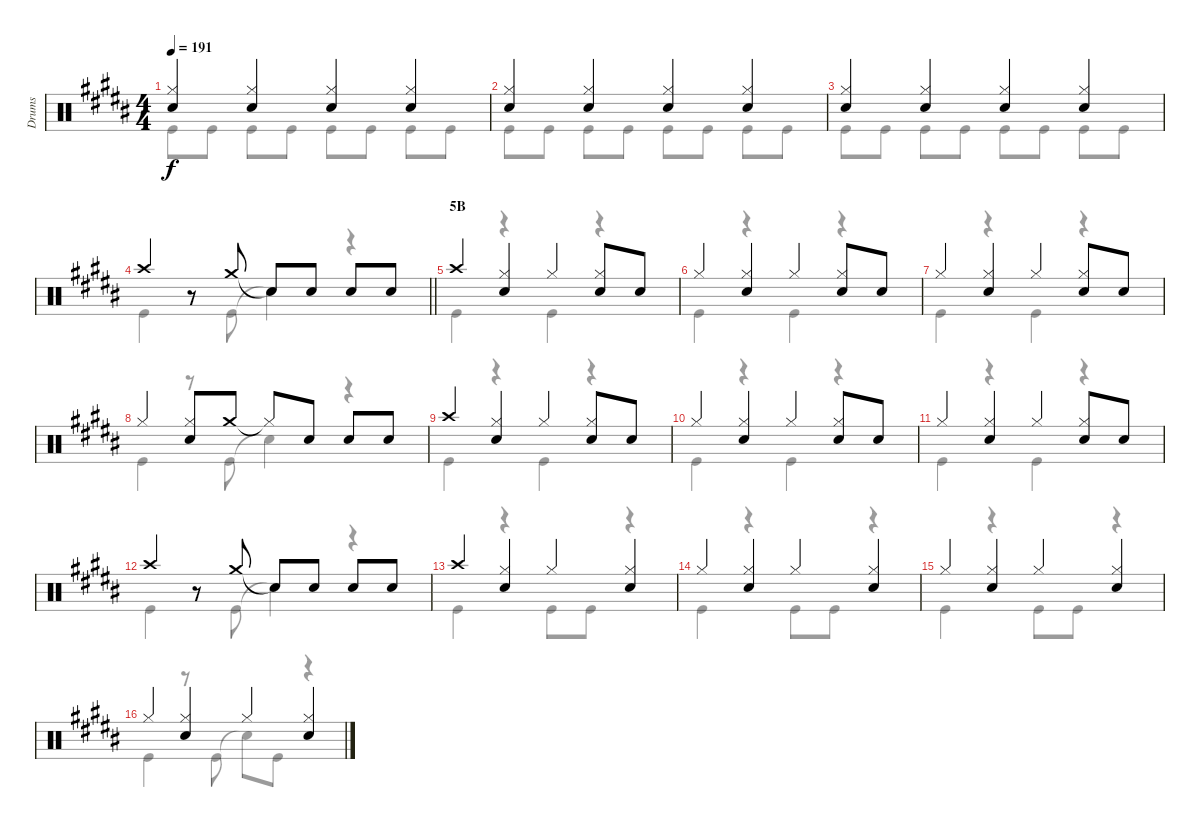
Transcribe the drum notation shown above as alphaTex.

\track ("Drums" "Drums") {instrument percussion}
\staff {score}
\articulation defaults
\voice
\ts (4 4)
\tempo 191
\clef neutral
\ks b
("Hi-Hat (closed)" "Snare (hit) 2").4{dy f} ("Hi-Hat (closed)" "Snare (hit) 2").4 ("Hi-Hat (closed)" "Snare (hit) 2").4 ("Hi-Hat (closed)" "Snare (hit) 2").4 |
("Hi-Hat (closed)" "Snare (hit) 2").4 ("Hi-Hat (closed)" "Snare (hit) 2").4 ("Hi-Hat (closed)" "Snare (hit) 2").4 ("Hi-Hat (closed)" "Snare (hit) 2").4 |
("Hi-Hat (closed)" "Snare (hit) 2").4 ("Hi-Hat (closed)" "Snare (hit) 2").4 ("Hi-Hat (closed)" "Snare (hit) 2").4 ("Hi-Hat (closed)" "Snare (hit) 2").4 |
\barLineRight lightlight "Crash high (hit)".4
r.8 "Crash medium (hit)".8 "Snare (hit)"{t}.8 "Snare (hit) 2".8 "Snare (hit) 2".8 "Snare (hit) 2".8 |
\section ("" "5B")
"Crash high (hit)".4 ("Hi-Hat (closed)" "Snare (hit) 2").4 "Hi-Hat (closed)".4 ("Hi-Hat (closed)" "Snare (hit) 2").8 "Snare (hit) 2".8 |
"Hi-Hat (closed)".4 ("Hi-Hat (closed)" "Snare (hit) 2").4 "Hi-Hat (closed)".4 ("Hi-Hat (closed)" "Snare (hit) 2").8 "Snare (hit) 2".8 |
"Hi-Hat (closed)".4 ("Hi-Hat (closed)" "Snare (hit) 2").4 "Hi-Hat (closed)".4 ("Hi-Hat (closed)" "Snare (hit) 2").8 "Snare (hit) 2".8 |
"Hi-Hat (closed)".4 ("Hi-Hat (closed)" "Snare (hit) 2").8 "Crash medium (hit)".8 "Hi-Hat (closed)"{t}.8 "Snare (hit) 2".8 "Snare (hit) 2".8 "Snare (hit) 2".8 |
"Crash high (hit)".4 ("Hi-Hat (closed)" "Snare (hit) 2").4 "Hi-Hat (closed)".4 ("Hi-Hat (closed)" "Snare (hit) 2").8 "Snare (hit) 2".8 |
"Hi-Hat (closed)".4 ("Hi-Hat (closed)" "Snare (hit) 2").4 "Hi-Hat (closed)".4 ("Hi-Hat (closed)" "Snare (hit) 2").8 "Snare (hit) 2".8 |
"Hi-Hat (closed)".4 ("Hi-Hat (closed)" "Snare (hit) 2").4 "Hi-Hat (closed)".4 ("Hi-Hat (closed)" "Snare (hit) 2").8 "Snare (hit) 2".8 |
"Crash high (hit)".4 r.8 "Crash medium (hit)".8 "Snare (hit)"{t}.8 "Snare (hit) 2".8 "Snare (hit) 2".8 "Snare (hit) 2".8 |
"Crash high (hit)".4 ("Hi-Hat (closed)" "Snare (hit) 2").4 "Hi-Hat (closed)".4 ("Hi-Hat (closed)" "Snare (hit) 2").4 |
"Hi-Hat (closed)".4 ("Hi-Hat (closed)" "Snare (hit) 2").4 "Hi-Hat (closed)".4 ("Hi-Hat (closed)" "Snare (hit) 2").4 |
"Hi-Hat (closed)".4 ("Hi-Hat (closed)" "Snare (hit) 2").4 "Hi-Hat (closed)".4 ("Hi-Hat (closed)" "Snare (hit) 2").4 |
"Hi-Hat (closed)".4 ("Hi-Hat (closed)" "Snare (hit) 2").4 "Hi-Hat (closed)".4 ("Hi-Hat (closed)" "Snare (hit) 2").4
\voice
\clef neutral
\ottava regular
\simile none
\ks b "Kick (hit)".8{dy f} "Kick (hit)".8 "Kick (hit)".8 "Kick (hit)".8 "Kick (hit)".8 "Kick (hit)".8 "Kick (hit)".8 "Kick (hit)".8
|
"Kick (hit)".8 "Kick (hit)".8 "Kick (hit)".8 "Kick (hit)".8 "Kick (hit)".8 "Kick (hit)".8 "Kick (hit)".8 "Kick (hit)".8 |
"Kick (hit)".8 "Kick (hit)".8 "Kick (hit)".8 "Kick (hit)".8 "Kick (hit)".8 "Kick (hit)".8 "Kick (hit)".8 "Kick (hit)".8 |
\barLineRight lightlight "Kick (hit)".4
r.8 "Kick (hit)".8 "Snare (hit)"{t}.4 r.4 |
"Kick (hit)".4 r.4 "Kick (hit)".4 r.4 |
"Kick (hit)".4 r.4 "Kick (hit)".4 r.4 |
"Kick (hit)".4 r.4 "Kick (hit)".4 r.4 |
"Kick (hit)".4 r.8 "Kick (hit)".8 "Snare (hit)"{t}.4 r.4 |
"Kick (hit)".4 r.4 "Kick (hit)".4 r.4 |
"Kick (hit)".4 r.4 "Kick (hit)".4 r.4 |
"Kick (hit)".4 r.4 "Kick (hit)".4 r.4 |
"Kick (hit)".4 r.8 "Kick (hit)".8 "Snare (hit)"{t}.4 r.4 |
"Kick (hit)".4 r.4 "Kick (hit)".8 "Kick (hit)".8 r.4 |
"Kick (hit)".4 r.4 "Kick (hit)".8 "Kick (hit)".8 r.4 |
"Kick (hit)".4 r.4 "Kick (hit)".8 "Kick (hit)".8 r.4 |
"Kick (hit)".4 r.8 "Kick (hit)".8 "Snare (hit)"{t}.8 "Kick (hit)".8 r.4
